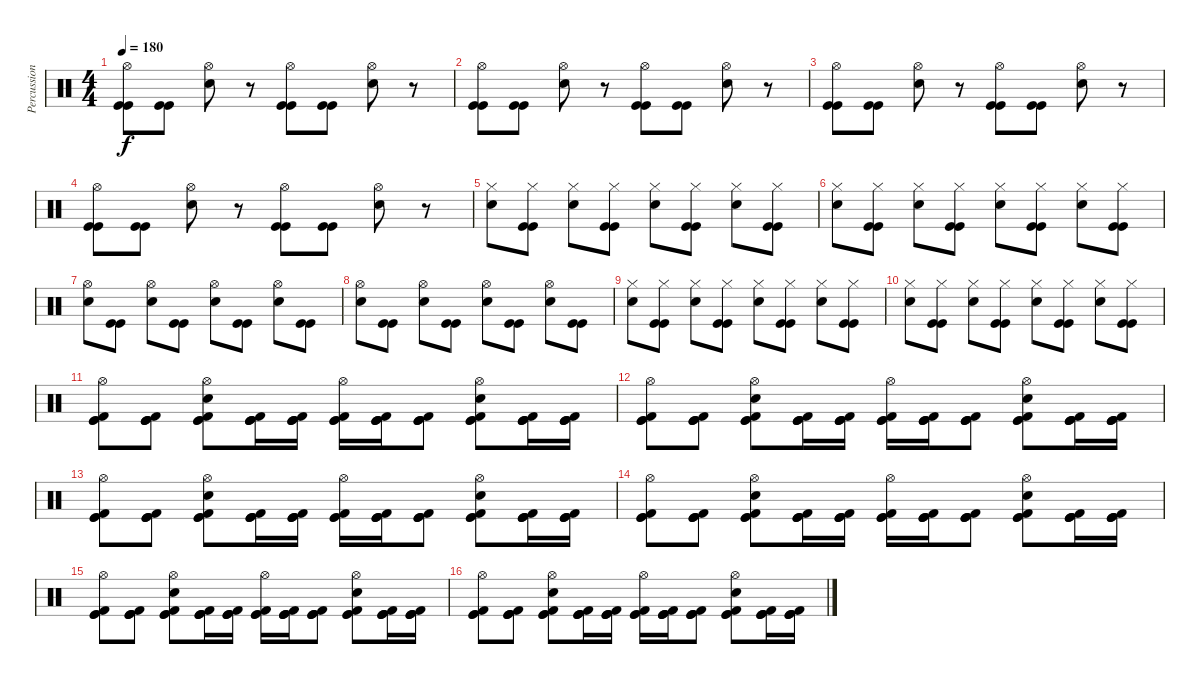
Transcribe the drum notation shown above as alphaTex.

\track ("Percussion" "Percussion") {instrument percussion}
\staff {score}
\articulation defaults
\ts (4 4)
\tempo 180
\clef neutral
\ks c
("Hi-Hat (open)" "Kick (hit)" "Kick (hit)").8{dy f} ("Kick (hit)" "Kick (hit)").8 ("Hi-Hat (open)" "Electric Snare (hit)").8 r.8 ("Hi-Hat (open)" "Kick (hit)" "Kick (hit)").8 ("Kick (hit)" "Kick (hit)").8 ("Hi-Hat (open)" "Electric Snare (hit)").8 r.8 |
("Hi-Hat (open)" "Kick (hit)" "Kick (hit)").8 ("Kick (hit)" "Kick (hit)").8 ("Hi-Hat (open)" "Electric Snare (hit)").8 r.8 ("Hi-Hat (open)" "Kick (hit)" "Kick (hit)").8 ("Kick (hit)" "Kick (hit)").8 ("Hi-Hat (open)" "Electric Snare (hit)").8 r.8 |
("Hi-Hat (open)" "Kick (hit)" "Kick (hit)").8 ("Kick (hit)" "Kick (hit)").8 ("Hi-Hat (open)" "Electric Snare (hit)").8 r.8 ("Hi-Hat (open)" "Kick (hit)" "Kick (hit)").8 ("Kick (hit)" "Kick (hit)").8 ("Hi-Hat (open)" "Electric Snare (hit)").8 r.8 |
("Hi-Hat (open)" "Kick (hit)" "Kick (hit)").8 ("Kick (hit)" "Kick (hit)").8 ("Hi-Hat (open)" "Electric Snare (hit)").8 r.8 ("Hi-Hat (open)" "Kick (hit)" "Kick (hit)").8 ("Kick (hit)" "Kick (hit)").8 ("Hi-Hat (open)" "Electric Snare (hit)").8 r.8 |
("Hi-Hat (closed)" "Electric Snare (hit)").8 ("Hi-Hat (closed)" "Kick (hit)" "Kick (hit)").8 ("Hi-Hat (closed)" "Electric Snare (hit)").8 ("Hi-Hat (closed)" "Kick (hit)" "Kick (hit)").8 ("Hi-Hat (closed)" "Electric Snare (hit)").8 ("Hi-Hat (closed)" "Kick (hit)" "Kick (hit)").8 ("Hi-Hat (closed)" "Electric Snare (hit)").8 ("Hi-Hat (closed)" "Kick (hit)" "Kick (hit)").8 |
("Hi-Hat (closed)" "Electric Snare (hit)").8 ("Hi-Hat (closed)" "Kick (hit)" "Kick (hit)").8 ("Hi-Hat (closed)" "Electric Snare (hit)").8 ("Hi-Hat (closed)" "Kick (hit)" "Kick (hit)").8 ("Hi-Hat (closed)" "Electric Snare (hit)").8 ("Hi-Hat (closed)" "Kick (hit)" "Kick (hit)").8 ("Hi-Hat (closed)" "Electric Snare (hit)").8 ("Hi-Hat (closed)" "Kick (hit)" "Kick (hit)").8 |
("Hi-Hat (open)" "Electric Snare (hit)").8 ("Kick (hit)" "Kick (hit)").8 ("Hi-Hat (open)" "Electric Snare (hit)").8 ("Kick (hit)" "Kick (hit)").8 ("Hi-Hat (open)" "Electric Snare (hit)").8 ("Kick (hit)" "Kick (hit)").8 ("Hi-Hat (open)" "Electric Snare (hit)").8 ("Kick (hit)" "Kick (hit)").8 |
("Hi-Hat (open)" "Electric Snare (hit)").8 ("Kick (hit)" "Kick (hit)").8 ("Hi-Hat (open)" "Electric Snare (hit)").8 ("Kick (hit)" "Kick (hit)").8 ("Hi-Hat (open)" "Electric Snare (hit)").8 ("Kick (hit)" "Kick (hit)").8 ("Hi-Hat (open)" "Electric Snare (hit)").8 ("Kick (hit)" "Kick (hit)").8 |
("Hi-Hat (closed)" "Electric Snare (hit)").8 ("Hi-Hat (closed)" "Kick (hit)" "Kick (hit)").8 ("Hi-Hat (closed)" "Electric Snare (hit)").8 ("Hi-Hat (closed)" "Kick (hit)" "Kick (hit)").8 ("Hi-Hat (closed)" "Electric Snare (hit)").8 ("Hi-Hat (closed)" "Kick (hit)" "Kick (hit)").8 ("Hi-Hat (closed)" "Electric Snare (hit)").8 ("Hi-Hat (closed)" "Kick (hit)" "Kick (hit)").8 |
("Hi-Hat (closed)" "Electric Snare (hit)").8 ("Hi-Hat (closed)" "Kick (hit)" "Kick (hit)").8 ("Hi-Hat (closed)" "Electric Snare (hit)").8 ("Hi-Hat (closed)" "Kick (hit)" "Kick (hit)").8 ("Hi-Hat (closed)" "Electric Snare (hit)").8 ("Hi-Hat (closed)" "Kick (hit)" "Kick (hit)").8 ("Hi-Hat (closed)" "Electric Snare (hit)").8 ("Hi-Hat (closed)" "Kick (hit)" "Kick (hit)").8 |
("Hi-Hat (open)" "Kick (hit)" "Kick (hit)" "Kick (hit) 2").8 ("Kick (hit)" "Kick (hit)" "Kick (hit)" "Kick (hit) 2").8 ("Hi-Hat (open)" "Kick (hit)" "Kick (hit)" "Kick (hit) 2" "Electric Snare (hit)").8 ("Kick (hit)" "Kick (hit)" "Kick (hit)" "Kick (hit) 2").16 ("Kick (hit)" "Kick (hit)" "Kick (hit)" "Kick (hit) 2").16 ("Hi-Hat (open)" "Kick (hit)" "Kick (hit)" "Kick (hit) 2").16 ("Kick (hit)" "Kick (hit)" "Kick (hit)" "Kick (hit) 2").16 ("Kick (hit)" "Kick (hit)" "Kick (hit)" "Kick (hit) 2").8 ("Hi-Hat (open)" "Kick (hit)" "Kick (hit)" "Kick (hit) 2" "Electric Snare (hit)").8 ("Kick (hit)" "Kick (hit)" "Kick (hit)" "Kick (hit) 2").16 ("Kick (hit)" "Kick (hit)" "Kick (hit)" "Kick (hit) 2").16 |
("Hi-Hat (open)" "Kick (hit)" "Kick (hit)" "Kick (hit) 2").8 ("Kick (hit)" "Kick (hit)" "Kick (hit)" "Kick (hit) 2").8 ("Hi-Hat (open)" "Kick (hit)" "Kick (hit)" "Kick (hit) 2" "Electric Snare (hit)").8 ("Kick (hit)" "Kick (hit)" "Kick (hit)" "Kick (hit) 2").16 ("Kick (hit)" "Kick (hit)" "Kick (hit)" "Kick (hit) 2").16 ("Hi-Hat (open)" "Kick (hit)" "Kick (hit)" "Kick (hit) 2").16 ("Kick (hit)" "Kick (hit)" "Kick (hit)" "Kick (hit) 2").16 ("Kick (hit)" "Kick (hit)" "Kick (hit)" "Kick (hit) 2").8 ("Hi-Hat (open)" "Kick (hit)" "Kick (hit)" "Kick (hit) 2" "Electric Snare (hit)").8 ("Kick (hit)" "Kick (hit)" "Kick (hit)" "Kick (hit) 2").16 ("Kick (hit)" "Kick (hit)" "Kick (hit)" "Kick (hit) 2").16 |
("Hi-Hat (open)" "Kick (hit)" "Kick (hit)" "Kick (hit) 2").8 ("Kick (hit)" "Kick (hit)" "Kick (hit)" "Kick (hit) 2").8 ("Hi-Hat (open)" "Kick (hit)" "Kick (hit)" "Kick (hit) 2" "Electric Snare (hit)").8 ("Kick (hit)" "Kick (hit)" "Kick (hit)" "Kick (hit) 2").16 ("Kick (hit)" "Kick (hit)" "Kick (hit)" "Kick (hit) 2").16 ("Hi-Hat (open)" "Kick (hit)" "Kick (hit)" "Kick (hit) 2").16 ("Kick (hit)" "Kick (hit)" "Kick (hit)" "Kick (hit) 2").16 ("Kick (hit)" "Kick (hit)" "Kick (hit)" "Kick (hit) 2").8 ("Hi-Hat (open)" "Kick (hit)" "Kick (hit)" "Kick (hit) 2" "Electric Snare (hit)").8 ("Kick (hit)" "Kick (hit)" "Kick (hit)" "Kick (hit) 2").16 ("Kick (hit)" "Kick (hit)" "Kick (hit)" "Kick (hit) 2").16 |
("Hi-Hat (open)" "Kick (hit)" "Kick (hit)" "Kick (hit) 2").8 ("Kick (hit)" "Kick (hit)" "Kick (hit)" "Kick (hit) 2").8 ("Hi-Hat (open)" "Kick (hit)" "Kick (hit)" "Kick (hit) 2" "Electric Snare (hit)").8 ("Kick (hit)" "Kick (hit)" "Kick (hit)" "Kick (hit) 2").16 ("Kick (hit)" "Kick (hit)" "Kick (hit)" "Kick (hit) 2").16 ("Hi-Hat (open)" "Kick (hit)" "Kick (hit)" "Kick (hit) 2").16 ("Kick (hit)" "Kick (hit)" "Kick (hit)" "Kick (hit) 2").16 ("Kick (hit)" "Kick (hit)" "Kick (hit)" "Kick (hit) 2").8 ("Hi-Hat (open)" "Kick (hit)" "Kick (hit)" "Kick (hit) 2" "Electric Snare (hit)").8 ("Kick (hit)" "Kick (hit)" "Kick (hit)" "Kick (hit) 2").16 ("Kick (hit)" "Kick (hit)" "Kick (hit)" "Kick (hit) 2").16 |
("Hi-Hat (open)" "Kick (hit)" "Kick (hit)" "Kick (hit) 2").8 ("Kick (hit)" "Kick (hit)" "Kick (hit)" "Kick (hit) 2").8 ("Hi-Hat (open)" "Kick (hit)" "Kick (hit)" "Kick (hit) 2" "Electric Snare (hit)").8 ("Kick (hit)" "Kick (hit)" "Kick (hit)" "Kick (hit) 2").16 ("Kick (hit)" "Kick (hit)" "Kick (hit)" "Kick (hit) 2").16 ("Hi-Hat (open)" "Kick (hit)" "Kick (hit)" "Kick (hit) 2").16 ("Kick (hit)" "Kick (hit)" "Kick (hit)" "Kick (hit) 2").16 ("Kick (hit)" "Kick (hit)" "Kick (hit)" "Kick (hit) 2").8 ("Hi-Hat (open)" "Kick (hit)" "Kick (hit)" "Kick (hit) 2" "Electric Snare (hit)").8 ("Kick (hit)" "Kick (hit)" "Kick (hit)" "Kick (hit) 2").16 ("Kick (hit)" "Kick (hit)" "Kick (hit)" "Kick (hit) 2").16 |
("Hi-Hat (open)" "Kick (hit)" "Kick (hit)" "Kick (hit) 2").8 ("Kick (hit)" "Kick (hit)" "Kick (hit)" "Kick (hit) 2").8 ("Hi-Hat (open)" "Kick (hit)" "Kick (hit)" "Kick (hit) 2" "Electric Snare (hit)").8 ("Kick (hit)" "Kick (hit)" "Kick (hit)" "Kick (hit) 2").16 ("Kick (hit)" "Kick (hit)" "Kick (hit)" "Kick (hit) 2").16 ("Hi-Hat (open)" "Kick (hit)" "Kick (hit)" "Kick (hit) 2").16 ("Kick (hit)" "Kick (hit)" "Kick (hit)" "Kick (hit) 2").16 ("Kick (hit)" "Kick (hit)" "Kick (hit)" "Kick (hit) 2").8 ("Hi-Hat (open)" "Kick (hit)" "Kick (hit)" "Kick (hit) 2" "Electric Snare (hit)").8 ("Kick (hit)" "Kick (hit)" "Kick (hit)" "Kick (hit) 2").16 ("Kick (hit)" "Kick (hit)" "Kick (hit)" "Kick (hit) 2").16
